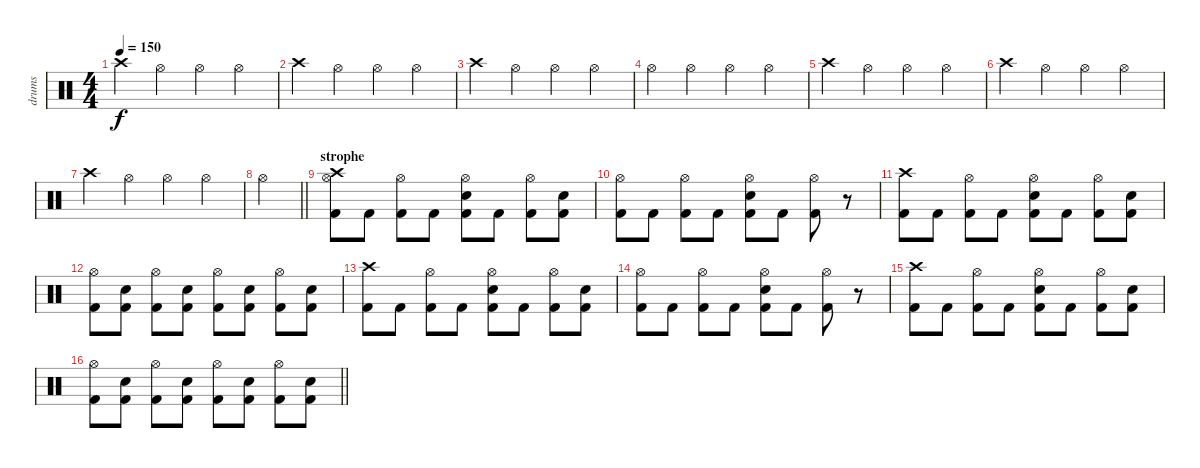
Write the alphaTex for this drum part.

\track ("drums" "drums") {instrument percussion}
\staff {score}
\articulation defaults
\ts (4 4)
\tempo 150
\clef neutral
\ks c "Crash high (hit)".4{dy f} "Hi-Hat (open)".4 "Hi-Hat (open)".4 "Hi-Hat (open)".4
|
"Crash high (hit)".4 "Hi-Hat (open)".4 "Hi-Hat (open)".4 "Hi-Hat (open)".4 |
"Crash high (hit)".4 "Hi-Hat (open)".4 "Hi-Hat (open)".4 "Hi-Hat (open)".4 |
"Hi-Hat (open)".4 "Hi-Hat (open)".4 "Hi-Hat (open)".4 "Hi-Hat (open)".4 |
"Crash high (hit)".4 "Hi-Hat (open)".4 "Hi-Hat (open)".4 "Hi-Hat (open)".4 |
"Crash high (hit)".4 "Hi-Hat (open)".4 "Hi-Hat (open)".4 "Hi-Hat (open)".4 |
"Crash high (hit)".4 "Hi-Hat (open)".4 "Hi-Hat (open)".4 "Hi-Hat (open)".4 |
\barLineRight lightlight "Hi-Hat (open)".4
|
\section ("" "strophe")
("Kick (hit) 2" "Crash high (hit)" "Hi-Hat (open)").8 "Kick (hit) 2".8 ("Kick (hit) 2" "Hi-Hat (open)").8 "Kick (hit) 2".8 ("Kick (hit) 2" "Snare (hit) 2" "Hi-Hat (open)").8 "Kick (hit) 2".8 ("Kick (hit) 2" "Hi-Hat (open)").8 ("Kick (hit) 2" "Snare (hit) 2").8 |
("Kick (hit) 2" "Hi-Hat (open)").8 "Kick (hit) 2".8 ("Kick (hit) 2" "Hi-Hat (open)").8 "Kick (hit) 2".8 ("Kick (hit) 2" "Snare (hit) 2" "Hi-Hat (open)").8 "Kick (hit) 2".8 ("Kick (hit) 2" "Hi-Hat (open)").8 r.8 |
("Kick (hit) 2" "Crash high (hit)").8 "Kick (hit) 2".8 ("Kick (hit) 2" "Hi-Hat (open)").8 "Kick (hit) 2".8 ("Kick (hit) 2" "Snare (hit) 2" "Hi-Hat (open)").8 "Kick (hit) 2".8 ("Kick (hit) 2" "Hi-Hat (open)").8 ("Kick (hit) 2" "Snare (hit) 2").8 |
("Kick (hit) 2" "Hi-Hat (open)").8 ("Kick (hit) 2" "Snare (hit) 2").8 ("Kick (hit) 2" "Hi-Hat (open)").8 ("Kick (hit) 2" "Snare (hit) 2").8 ("Kick (hit) 2" "Hi-Hat (open)").8 ("Kick (hit) 2" "Snare (hit) 2").8 ("Kick (hit) 2" "Hi-Hat (open)").8 ("Kick (hit) 2" "Snare (hit) 2").8 |
("Kick (hit) 2" "Crash high (hit)").8 "Kick (hit) 2".8 ("Kick (hit) 2" "Hi-Hat (open)").8 "Kick (hit) 2".8 ("Kick (hit) 2" "Snare (hit) 2" "Hi-Hat (open)").8 "Kick (hit) 2".8 ("Kick (hit) 2" "Hi-Hat (open)").8 ("Kick (hit) 2" "Snare (hit) 2").8 |
("Kick (hit) 2" "Hi-Hat (open)").8 "Kick (hit) 2".8 ("Kick (hit) 2" "Hi-Hat (open)").8 "Kick (hit) 2".8 ("Kick (hit) 2" "Snare (hit) 2" "Hi-Hat (open)").8 "Kick (hit) 2".8 ("Kick (hit) 2" "Hi-Hat (open)").8 r.8 |
("Kick (hit) 2" "Crash high (hit)").8 "Kick (hit) 2".8 ("Kick (hit) 2" "Hi-Hat (open)").8 "Kick (hit) 2".8 ("Kick (hit) 2" "Snare (hit) 2" "Hi-Hat (open)").8 "Kick (hit) 2".8 ("Kick (hit) 2" "Hi-Hat (open)").8 ("Kick (hit) 2" "Snare (hit) 2").8 |
\barLineRight lightlight
("Kick (hit) 2" "Hi-Hat (open)").8 ("Kick (hit) 2" "Snare (hit) 2").8 ("Kick (hit) 2" "Hi-Hat (open)").8 ("Kick (hit) 2" "Snare (hit) 2").8 ("Kick (hit) 2" "Hi-Hat (open)").8 ("Kick (hit) 2" "Snare (hit) 2").8 ("Kick (hit) 2" "Hi-Hat (open)").8 ("Kick (hit) 2" "Snare (hit) 2").8
